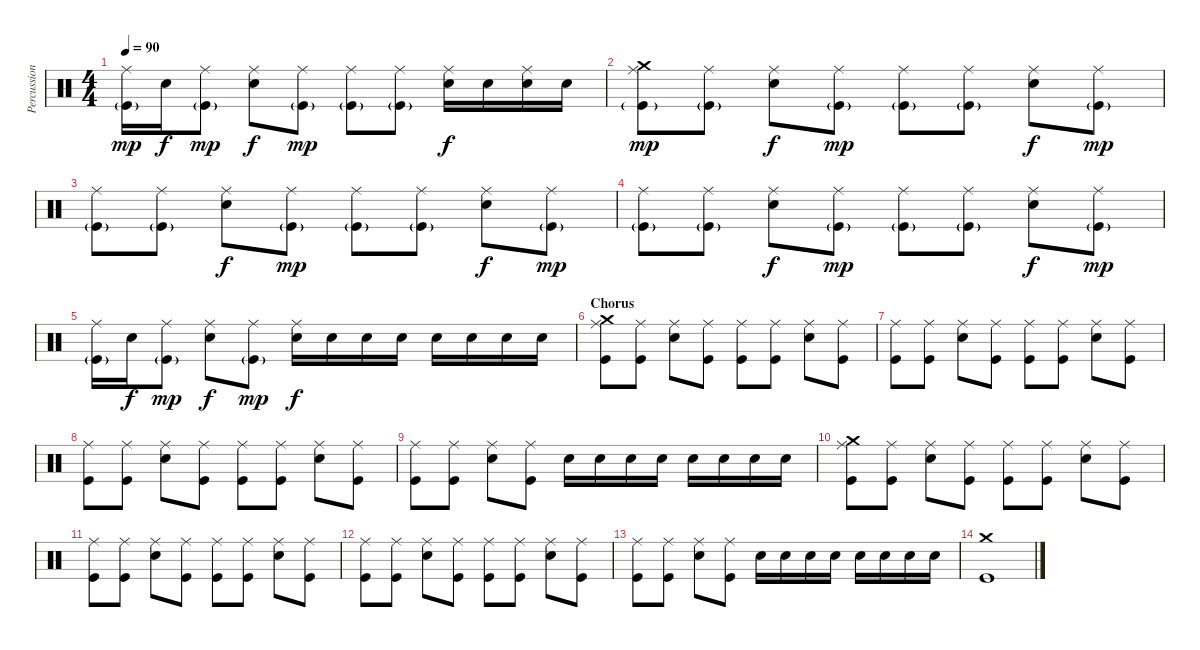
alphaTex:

\track ("Percussions" "Percussion") {instrument percussion}
\staff {score}
\articulation defaults
\ts (4 4)
\tempo 90
\clef neutral
\ks c
("Ride (middle)" "Kick (hit)"{g}).16{dy mp} "Snare (hit) 2".16{dy f} ("Ride (middle)" "Kick (hit)"{g}).8{dy mp} ("Ride (middle)" "Snare (hit) 2").8{dy f} ("Ride (middle)" "Kick (hit)"{g}).8{dy mp} ("Ride (middle)" "Kick (hit)"{g}).8 ("Ride (middle)" "Kick (hit)"{g}).8 ("Ride (middle)" "Snare (hit) 2").16{dy f} "Snare (hit) 2".16 ("Ride (middle)" "Snare (hit) 2").16 "Snare (hit) 2".16 |
("Ride (middle)" "Crash medium (hit)" "Kick (hit)"{g}).8{dy mp} ("Ride (middle)" "Kick (hit)"{g}).8 ("Ride (middle)" "Snare (hit) 2").8{dy f} ("Ride (middle)" "Kick (hit)"{g}).8{dy mp} ("Ride (middle)" "Kick (hit)"{g}).8 ("Ride (middle)" "Kick (hit)"{g}).8 ("Ride (middle)" "Snare (hit) 2").8{dy f} ("Ride (middle)" "Kick (hit)"{g}).8{dy mp} |
("Ride (middle)" "Kick (hit)"{g}).8 ("Ride (middle)" "Kick (hit)"{g}).8 ("Ride (middle)" "Snare (hit) 2").8{dy f} ("Ride (middle)" "Kick (hit)"{g}).8{dy mp} ("Ride (middle)" "Kick (hit)"{g}).8 ("Ride (middle)" "Kick (hit)"{g}).8 ("Ride (middle)" "Snare (hit) 2").8{dy f} ("Ride (middle)" "Kick (hit)"{g}).8{dy mp} |
("Ride (middle)" "Kick (hit)"{g}).8 ("Ride (middle)" "Kick (hit)"{g}).8 ("Ride (middle)" "Snare (hit) 2").8{dy f} ("Ride (middle)" "Kick (hit)"{g}).8{dy mp} ("Ride (middle)" "Kick (hit)"{g}).8 ("Ride (middle)" "Kick (hit)"{g}).8 ("Ride (middle)" "Snare (hit) 2").8{dy f} ("Ride (middle)" "Kick (hit)"{g}).8{dy mp} |
("Ride (middle)" "Kick (hit)"{g}).16 "Snare (hit) 2".16{dy f} ("Ride (middle)" "Kick (hit)"{g}).8{dy mp} ("Ride (middle)" "Snare (hit) 2").8{dy f} ("Ride (middle)" "Kick (hit)"{g}).8{dy mp} ("Ride (middle)" "Snare (hit) 2").16{dy f} "Snare (hit) 2".16 "Snare (hit) 2".16 "Snare (hit) 2".16 "Snare (hit) 2".16 "Snare (hit) 2".16 "Snare (hit) 2".16 "Snare (hit) 2".16 |
\section ("" "Chorus")
("Ride (middle)" "Crash medium (hit)" "Kick (hit)").8 ("Ride (middle)" "Kick (hit)").8 ("Ride (middle)" "Snare (hit) 2").8 ("Ride (middle)" "Kick (hit)").8 ("Ride (middle)" "Kick (hit)").8 ("Ride (middle)" "Kick (hit)").8 ("Ride (middle)" "Snare (hit) 2").8 ("Ride (middle)" "Kick (hit)").8 |
("Ride (middle)" "Kick (hit)").8 ("Ride (middle)" "Kick (hit)").8 ("Ride (middle)" "Snare (hit) 2").8 ("Ride (middle)" "Kick (hit)").8 ("Ride (middle)" "Kick (hit)").8 ("Ride (middle)" "Kick (hit)").8 ("Ride (middle)" "Snare (hit) 2").8 ("Ride (middle)" "Kick (hit)").8 |
("Ride (middle)" "Kick (hit)").8 ("Ride (middle)" "Kick (hit)").8 ("Ride (middle)" "Snare (hit) 2").8 ("Ride (middle)" "Kick (hit)").8 ("Ride (middle)" "Kick (hit)").8 ("Ride (middle)" "Kick (hit)").8 ("Ride (middle)" "Snare (hit) 2").8 ("Ride (middle)" "Kick (hit)").8 |
("Ride (middle)" "Kick (hit)").8 ("Ride (middle)" "Kick (hit)").8 ("Ride (middle)" "Snare (hit) 2").8 ("Ride (middle)" "Kick (hit)").8 "Snare (hit) 2".16 "Snare (hit) 2".16 "Snare (hit) 2".16 "Snare (hit) 2".16 "Snare (hit) 2".16 "Snare (hit) 2".16 "Snare (hit) 2".16 "Snare (hit) 2".16 |
("Ride (middle)" "Crash medium (hit)" "Kick (hit)").8 ("Ride (middle)" "Kick (hit)").8 ("Ride (middle)" "Snare (hit) 2").8 ("Ride (middle)" "Kick (hit)").8 ("Ride (middle)" "Kick (hit)").8 ("Ride (middle)" "Kick (hit)").8 ("Ride (middle)" "Snare (hit) 2").8 ("Ride (middle)" "Kick (hit)").8 |
("Ride (middle)" "Kick (hit)").8 ("Ride (middle)" "Kick (hit)").8 ("Ride (middle)" "Snare (hit) 2").8 ("Ride (middle)" "Kick (hit)").8 ("Ride (middle)" "Kick (hit)").8 ("Ride (middle)" "Kick (hit)").8 ("Ride (middle)" "Snare (hit) 2").8 ("Ride (middle)" "Kick (hit)").8 |
("Ride (middle)" "Kick (hit)").8 ("Ride (middle)" "Kick (hit)").8 ("Ride (middle)" "Snare (hit) 2").8 ("Ride (middle)" "Kick (hit)").8 ("Ride (middle)" "Kick (hit)").8 ("Ride (middle)" "Kick (hit)").8 ("Ride (middle)" "Snare (hit) 2").8 ("Ride (middle)" "Kick (hit)").8 |
("Ride (middle)" "Kick (hit)").8 ("Ride (middle)" "Kick (hit)").8 ("Ride (middle)" "Snare (hit) 2").8 ("Ride (middle)" "Kick (hit)").8 "Snare (hit) 2".16 "Snare (hit) 2".16 "Snare (hit) 2".16 "Snare (hit) 2".16 "Snare (hit) 2".16 "Snare (hit) 2".16 "Snare (hit) 2".16 "Snare (hit) 2".16 |
("Crash medium (hit)" "Kick (hit)").1
